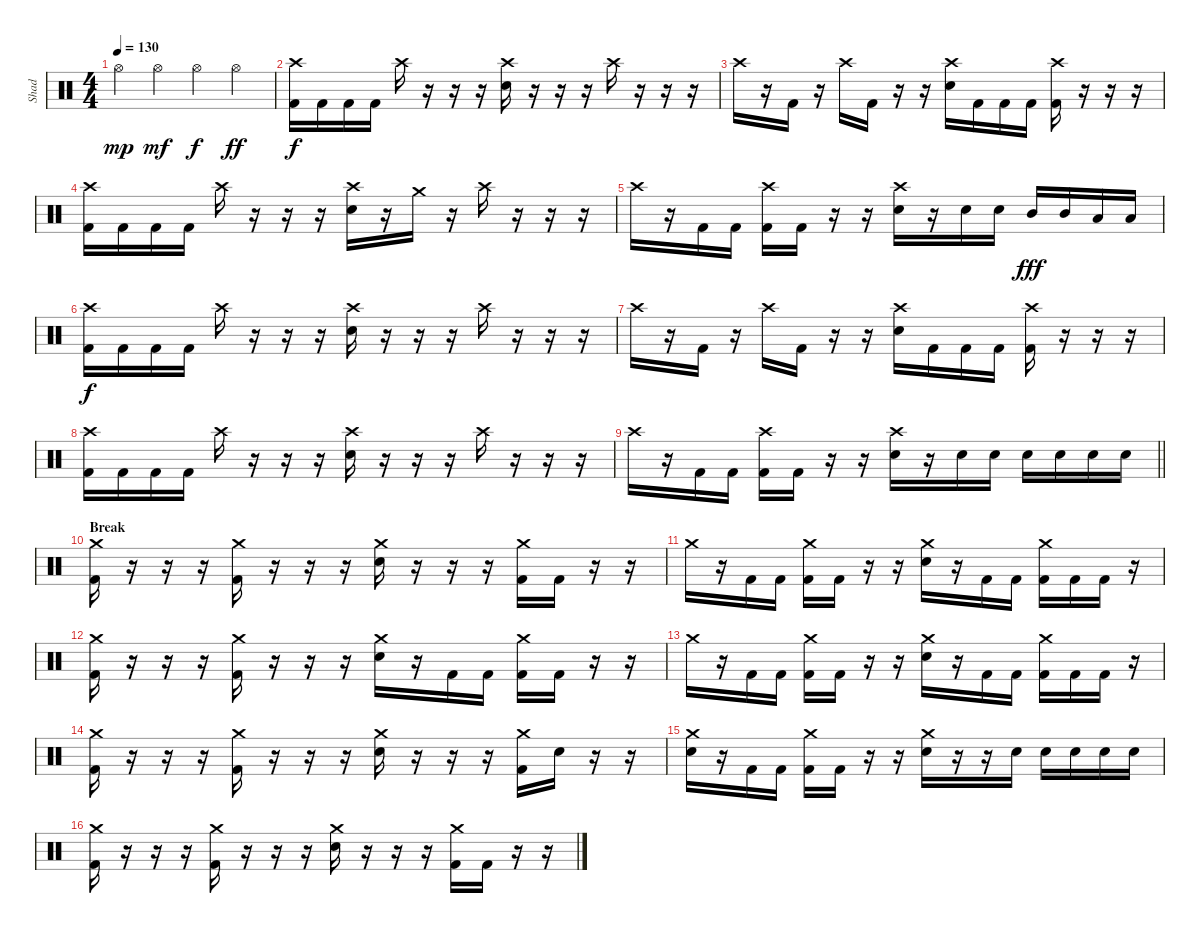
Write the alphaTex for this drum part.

\track ("Shad" "Shad") {instrument percussion}
\staff {score}
\articulation defaults
\ts (4 4)
\tempo 130
\clef neutral
\ks c "Hi-Hat (open)".4{dy mp} "Hi-Hat (open)".4{dy mf} "Hi-Hat (open)".4{dy f} "Hi-Hat (open)".4{dy ff}
|
("Crash high (hit)" "Kick (hit) 2").16{dy f} "Kick (hit) 2".16 "Kick (hit) 2".16 "Kick (hit) 2".16 "Crash high (hit)".16 r.16 r.16 r.16 ("Crash high (hit)" "Electric Snare (hit)").16 r.16 r.16 r.16 "Crash high (hit)".16 r.16 r.16 r.16 |
"Crash high (hit)".16 r.16 "Kick (hit) 2".16 r.16 "Crash high (hit)".16 "Kick (hit) 2".16 r.16 r.16 ("Crash high (hit)" "Electric Snare (hit)").16 "Kick (hit) 2".16 "Kick (hit) 2".16 "Kick (hit) 2".16 ("Crash high (hit)" "Kick (hit) 2").16 r.16 r.16 r.16 |
("Crash high (hit)" "Kick (hit) 2").16 "Kick (hit) 2".16 "Kick (hit) 2".16 "Kick (hit) 2".16 "Crash high (hit)".16 r.16 r.16 r.16 ("Crash high (hit)" "Electric Snare (hit)").16 r.16 "Crash medium (hit)".16 r.16 "Crash high (hit)".16 r.16 r.16 r.16 |
"Crash high (hit)".16 r.16 "Kick (hit) 2".16 "Kick (hit) 2".16 ("Crash high (hit)" "Kick (hit) 2").16 "Kick (hit) 2".16 r.16 r.16 ("Crash high (hit)" "Electric Snare (hit)").16 r.16 "Electric Snare (hit)".16 "Electric Snare (hit)".16 "Mid Tom (hit)".16{dy fff} "Mid Tom (hit)".16 "Low Tom (hit)".16 "Low Tom (hit)".16 |
("Crash high (hit)" "Kick (hit) 2").16{dy f} "Kick (hit) 2".16 "Kick (hit) 2".16 "Kick (hit) 2".16 "Crash high (hit)".16 r.16 r.16 r.16 ("Crash high (hit)" "Electric Snare (hit)").16 r.16 r.16 r.16 "Crash high (hit)".16 r.16 r.16 r.16 |
"Crash high (hit)".16 r.16 "Kick (hit) 2".16 r.16 "Crash high (hit)".16 "Kick (hit) 2".16 r.16 r.16 ("Crash high (hit)" "Electric Snare (hit)").16 "Kick (hit) 2".16 "Kick (hit) 2".16 "Kick (hit) 2".16 ("Crash high (hit)" "Kick (hit) 2").16 r.16 r.16 r.16 |
("Crash high (hit)" "Kick (hit) 2").16 "Kick (hit) 2".16 "Kick (hit) 2".16 "Kick (hit) 2".16 "Crash high (hit)".16 r.16 r.16 r.16 ("Crash high (hit)" "Electric Snare (hit)").16 r.16 r.16 r.16 "Crash high (hit)".16 r.16 r.16 r.16 |
\barLineRight lightlight "Crash high (hit)".16
r.16 "Kick (hit) 2".16 "Kick (hit) 2".16 ("Crash high (hit)" "Kick (hit) 2").16 "Kick (hit) 2".16 r.16 r.16 ("Crash high (hit)" "Electric Snare (hit)").16 r.16 "Electric Snare (hit)".16 "Electric Snare (hit)".16 "Electric Snare (hit)".16 "Electric Snare (hit)".16 "Electric Snare (hit)".16 "Electric Snare (hit)".16 |
\section ("" "Break")
("Crash medium (hit)" "Kick (hit) 2").16 r.16 r.16 r.16 ("Crash medium (hit)" "Kick (hit) 2").16 r.16 r.16 r.16 ("Crash medium (hit)" "Electric Snare (hit)").16 r.16 r.16 r.16 ("Crash medium (hit)" "Kick (hit) 2").16 "Kick (hit) 2".16 r.16 r.16 |
"Crash medium (hit)".16 r.16 "Kick (hit) 2".16 "Kick (hit) 2".16 ("Crash medium (hit)" "Kick (hit) 2").16 "Kick (hit) 2".16 r.16 r.16 ("Crash medium (hit)" "Electric Snare (hit)").16 r.16 "Kick (hit) 2".16 "Kick (hit) 2".16 ("Crash medium (hit)" "Kick (hit) 2").16 "Kick (hit) 2".16 "Kick (hit) 2".16 r.16 |
("Crash medium (hit)" "Kick (hit) 2").16 r.16 r.16 r.16 ("Crash medium (hit)" "Kick (hit) 2").16 r.16 r.16 r.16 ("Crash medium (hit)" "Electric Snare (hit)").16 r.16 "Kick (hit) 2".16 "Kick (hit) 2".16 ("Crash medium (hit)" "Kick (hit) 2").16 "Kick (hit) 2".16 r.16 r.16 |
"Crash medium (hit)".16 r.16 "Kick (hit) 2".16 "Kick (hit) 2".16 ("Crash medium (hit)" "Kick (hit) 2").16 "Kick (hit) 2".16 r.16 r.16 ("Crash medium (hit)" "Electric Snare (hit)").16 r.16 "Kick (hit) 2".16 "Kick (hit) 2".16 ("Crash medium (hit)" "Kick (hit) 2").16 "Kick (hit) 2".16 "Kick (hit) 2".16 r.16 |
("Crash medium (hit)" "Kick (hit) 2").16 r.16 r.16 r.16 ("Crash medium (hit)" "Kick (hit) 2").16 r.16 r.16 r.16 ("Crash medium (hit)" "Electric Snare (hit)").16 r.16 r.16 r.16 ("Crash medium (hit)" "Kick (hit) 2").16 "Electric Snare (hit)".16 r.16 r.16 |
("Crash medium (hit)" "Electric Snare (hit)").16 r.16 "Kick (hit) 2".16 "Kick (hit) 2".16 ("Crash medium (hit)" "Kick (hit) 2").16 "Kick (hit) 2".16 r.16 r.16 ("Crash medium (hit)" "Electric Snare (hit)").16 r.16 r.16 "Electric Snare (hit)".16 "Electric Snare (hit)".16 "Electric Snare (hit)".16 "Electric Snare (hit)".16 "Electric Snare (hit)".16 |
("Crash medium (hit)" "Kick (hit) 2").16 r.16 r.16 r.16 ("Crash medium (hit)" "Kick (hit) 2").16 r.16 r.16 r.16 ("Crash medium (hit)" "Electric Snare (hit)").16 r.16 r.16 r.16 ("Crash medium (hit)" "Kick (hit) 2").16 "Kick (hit) 2".16 r.16 r.16
